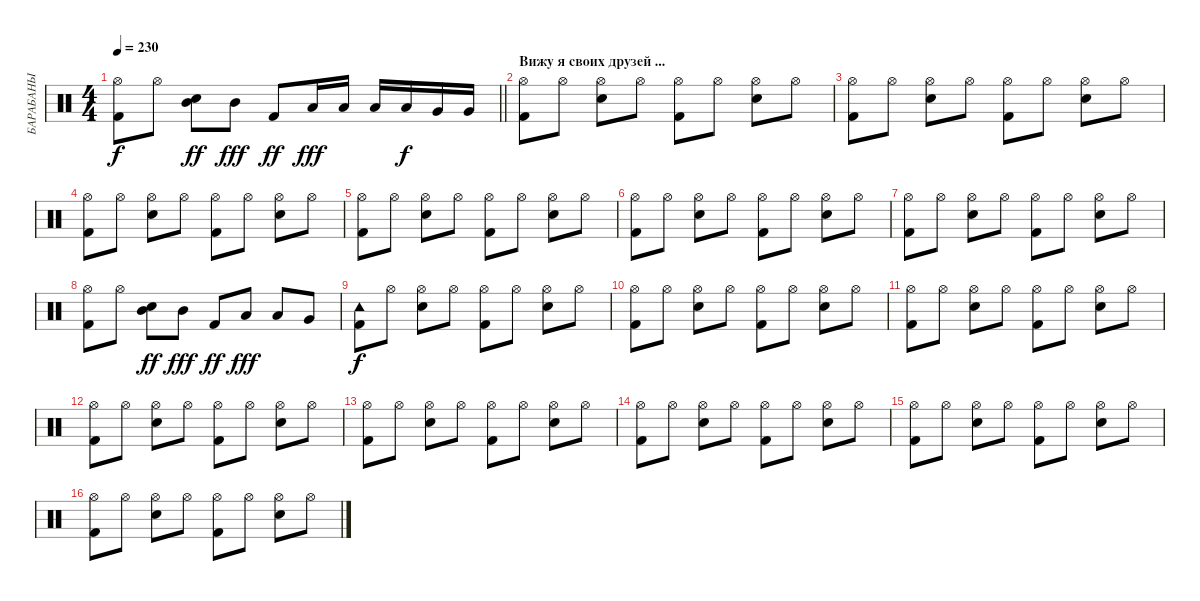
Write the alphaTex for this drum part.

\track ("БАРАБАНЫ" "БАРАБАНЫ") {instrument percussion}
\staff {score}
\articulation defaults
\ts (4 4)
\tempo 230
\clef neutral
\barLineRight lightlight
\ks c
("Hi-Hat (open)" "Kick (hit) 2").8{dy f} "Hi-Hat (open)".8 ("Mid Tom (hit)" "Electric Snare (hit)").8{dy ff} "Mid Tom (hit)".8{dy fff} "Kick (hit) 2".8{dy ff} "Low Tom (hit)".16{dy fff} "Low Tom (hit)".16 "Low Tom (hit)".16 "Low Tom (hit)".16{dy f} "Very Low Tom (hit)".16 "Very Low Tom (hit)".16 |
\section ("" "Вижу я своих друзей ...")
("Hi-Hat (open)" "Kick (hit) 2").8 "Hi-Hat (open)".8 ("Hi-Hat (open)" "Electric Snare (hit)").8 "Hi-Hat (open)".8 ("Hi-Hat (open)" "Kick (hit) 2").8 "Hi-Hat (open)".8 ("Hi-Hat (open)" "Electric Snare (hit)").8 "Hi-Hat (open)".8 |
("Hi-Hat (open)" "Kick (hit) 2").8 "Hi-Hat (open)".8 ("Hi-Hat (open)" "Electric Snare (hit)").8 "Hi-Hat (open)".8 ("Hi-Hat (open)" "Kick (hit) 2").8 "Hi-Hat (open)".8 ("Hi-Hat (open)" "Electric Snare (hit)").8 "Hi-Hat (open)".8 |
("Hi-Hat (open)" "Kick (hit) 2").8 "Hi-Hat (open)".8 ("Hi-Hat (open)" "Electric Snare (hit)").8 "Hi-Hat (open)".8 ("Hi-Hat (open)" "Kick (hit) 2").8 "Hi-Hat (open)".8 ("Hi-Hat (open)" "Electric Snare (hit)").8 "Hi-Hat (open)".8 |
("Hi-Hat (open)" "Kick (hit) 2").8 "Hi-Hat (open)".8 ("Hi-Hat (open)" "Electric Snare (hit)").8 "Hi-Hat (open)".8 ("Hi-Hat (open)" "Kick (hit) 2").8 "Hi-Hat (open)".8 ("Hi-Hat (open)" "Electric Snare (hit)").8 "Hi-Hat (open)".8 |
("Hi-Hat (open)" "Kick (hit) 2").8 "Hi-Hat (open)".8 ("Hi-Hat (open)" "Electric Snare (hit)").8 "Hi-Hat (open)".8 ("Hi-Hat (open)" "Kick (hit) 2").8 "Hi-Hat (open)".8 ("Hi-Hat (open)" "Electric Snare (hit)").8 "Hi-Hat (open)".8 |
("Hi-Hat (open)" "Kick (hit) 2").8 "Hi-Hat (open)".8 ("Hi-Hat (open)" "Electric Snare (hit)").8 "Hi-Hat (open)".8 ("Hi-Hat (open)" "Kick (hit) 2").8 "Hi-Hat (open)".8 ("Hi-Hat (open)" "Electric Snare (hit)").8 "Hi-Hat (open)".8 |
("Hi-Hat (open)" "Kick (hit) 2").8 "Hi-Hat (open)".8 ("Mid Tom (hit)" "Electric Snare (hit)").8{dy ff} "Mid Tom (hit)".8{dy fff} "Kick (hit) 2".8{dy ff} "Low Tom (hit)".8{dy fff} "Low Tom (hit)".8 "Very Low Tom (hit)".8 |
("Tambourine (hit)" "Kick (hit) 2").8{dy f} "Hi-Hat (open)".8 ("Hi-Hat (open)" "Electric Snare (hit)").8 "Hi-Hat (open)".8 ("Hi-Hat (open)" "Kick (hit) 2").8 "Hi-Hat (open)".8 ("Hi-Hat (open)" "Electric Snare (hit)").8 "Hi-Hat (open)".8 |
("Hi-Hat (open)" "Kick (hit) 2").8 "Hi-Hat (open)".8 ("Hi-Hat (open)" "Electric Snare (hit)").8 "Hi-Hat (open)".8 ("Hi-Hat (open)" "Kick (hit) 2").8 "Hi-Hat (open)".8 ("Hi-Hat (open)" "Electric Snare (hit)").8 "Hi-Hat (open)".8 |
("Hi-Hat (open)" "Kick (hit) 2").8 "Hi-Hat (open)".8 ("Hi-Hat (open)" "Electric Snare (hit)").8 "Hi-Hat (open)".8 ("Hi-Hat (open)" "Kick (hit) 2").8 "Hi-Hat (open)".8 ("Hi-Hat (open)" "Electric Snare (hit)").8 "Hi-Hat (open)".8 |
("Hi-Hat (open)" "Kick (hit) 2").8 "Hi-Hat (open)".8 ("Hi-Hat (open)" "Electric Snare (hit)").8 "Hi-Hat (open)".8 ("Hi-Hat (open)" "Kick (hit) 2").8 "Hi-Hat (open)".8 ("Hi-Hat (open)" "Electric Snare (hit)").8 "Hi-Hat (open)".8 |
("Hi-Hat (open)" "Kick (hit) 2").8 "Hi-Hat (open)".8 ("Hi-Hat (open)" "Electric Snare (hit)").8 "Hi-Hat (open)".8 ("Hi-Hat (open)" "Kick (hit) 2").8 "Hi-Hat (open)".8 ("Hi-Hat (open)" "Electric Snare (hit)").8 "Hi-Hat (open)".8 |
("Hi-Hat (open)" "Kick (hit) 2").8 "Hi-Hat (open)".8 ("Hi-Hat (open)" "Electric Snare (hit)").8 "Hi-Hat (open)".8 ("Hi-Hat (open)" "Kick (hit) 2").8 "Hi-Hat (open)".8 ("Hi-Hat (open)" "Electric Snare (hit)").8 "Hi-Hat (open)".8 |
("Hi-Hat (open)" "Kick (hit) 2").8 "Hi-Hat (open)".8 ("Hi-Hat (open)" "Electric Snare (hit)").8 "Hi-Hat (open)".8 ("Hi-Hat (open)" "Kick (hit) 2").8 "Hi-Hat (open)".8 ("Hi-Hat (open)" "Electric Snare (hit)").8 "Hi-Hat (open)".8 |
("Hi-Hat (open)" "Kick (hit) 2").8 "Hi-Hat (open)".8 ("Hi-Hat (open)" "Electric Snare (hit)").8 "Hi-Hat (open)".8 ("Hi-Hat (open)" "Kick (hit) 2").8 "Hi-Hat (open)".8 ("Hi-Hat (open)" "Electric Snare (hit)").8 "Hi-Hat (open)".8
